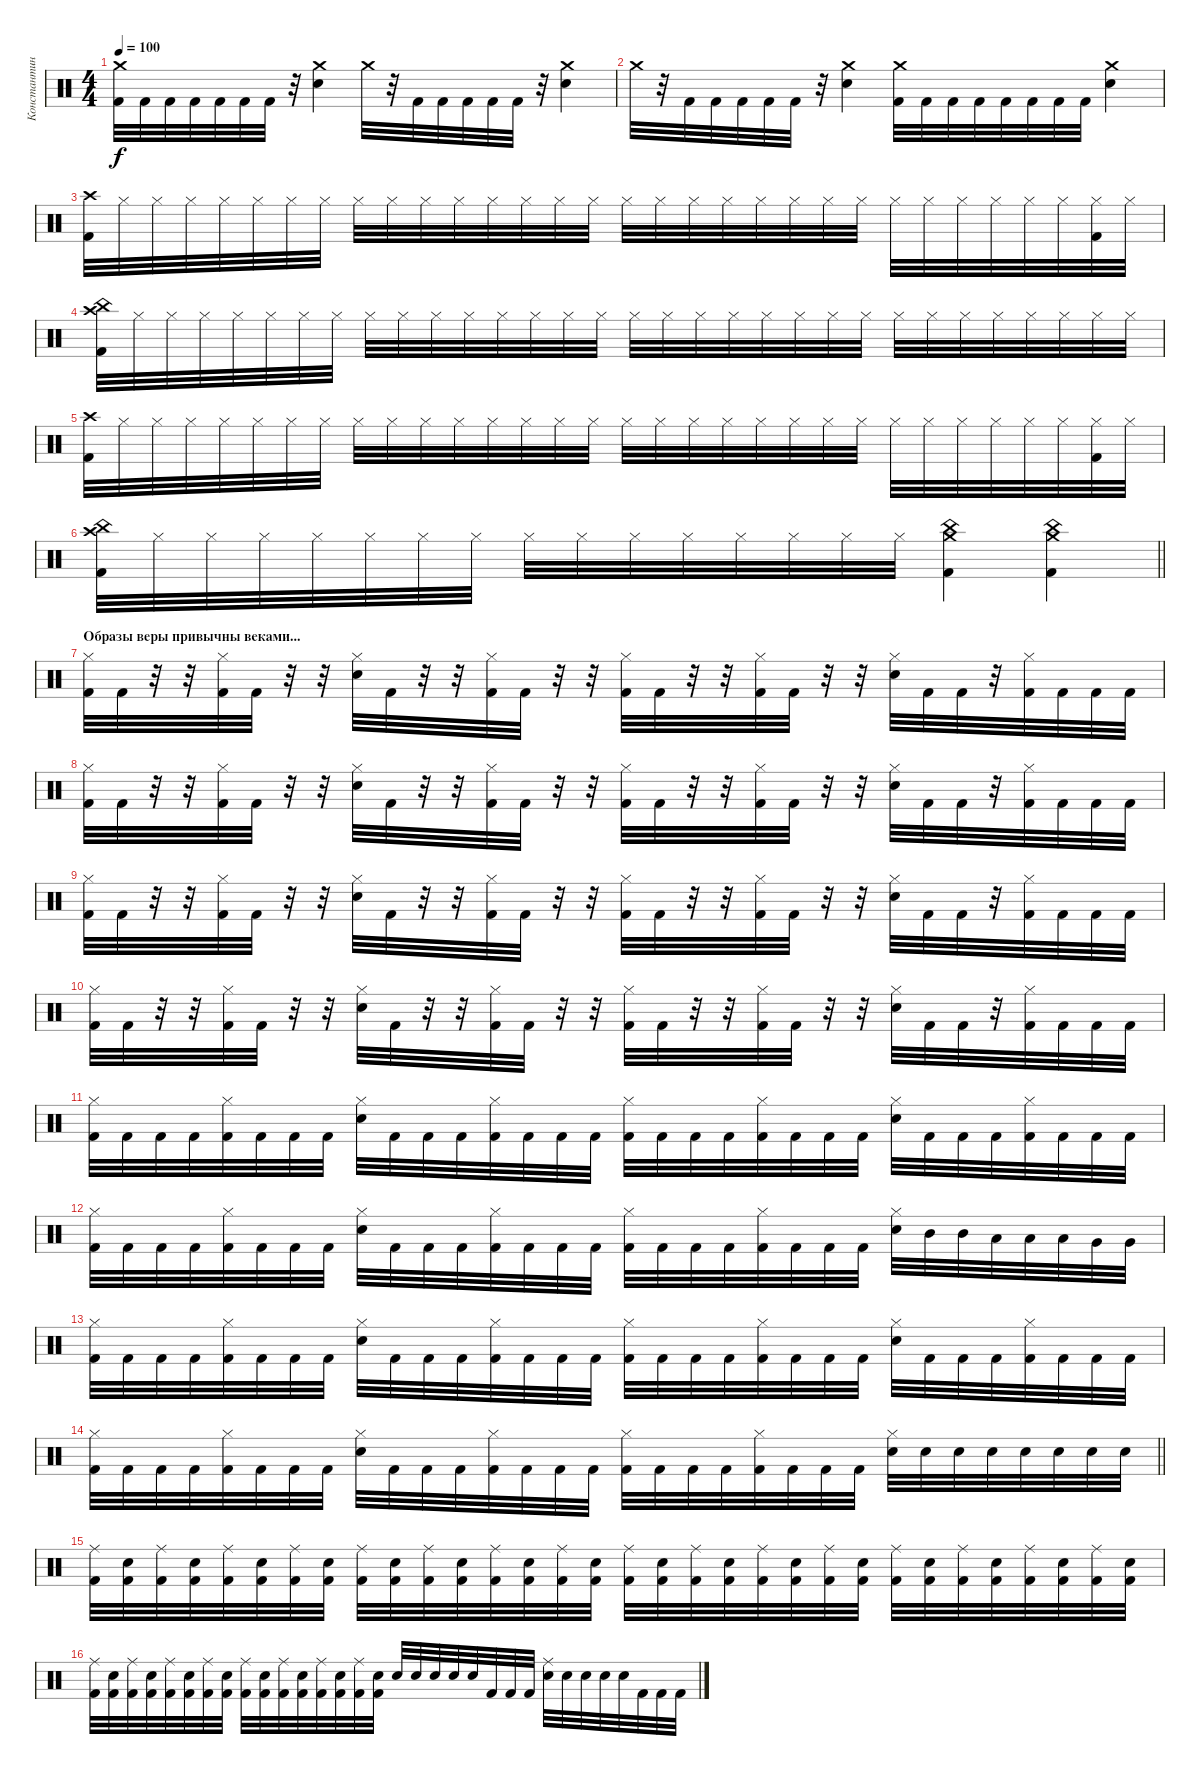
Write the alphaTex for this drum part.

\track ("Константин \"Салян\" Сальников" "Константин") {instrument percussion}
\staff {score}
\articulation defaults
\ts (4 4)
\tempo 100
\clef neutral
\ks c
("Crash medium (hit)" "Kick (hit) 2").32{dy f} "Kick (hit) 2".32 "Kick (hit) 2".32 "Kick (hit) 2".32 "Kick (hit) 2".32 "Kick (hit) 2".32 "Kick (hit) 2".32 r.32 ("Crash medium (hit)" "Electric Snare (hit)").4 "Crash medium (hit)".32 r.32 "Kick (hit) 2".32 "Kick (hit) 2".32 "Kick (hit) 2".32 "Kick (hit) 2".32 "Kick (hit) 2".32 r.32 ("Crash medium (hit)" "Electric Snare (hit)").4 |
"Crash medium (hit)".32 r.32 "Kick (hit) 2".32 "Kick (hit) 2".32 "Kick (hit) 2".32 "Kick (hit) 2".32 "Kick (hit) 2".32 r.32 ("Crash medium (hit)" "Electric Snare (hit)").4 ("Crash medium (hit)" "Kick (hit) 2").32 "Kick (hit) 2".32 "Kick (hit) 2".32 "Kick (hit) 2".32 "Kick (hit) 2".32 "Kick (hit) 2".32 "Kick (hit) 2".32 "Kick (hit) 2".32 ("Crash medium (hit)" "Electric Snare (hit)").4 |
("Crash high (hit)" "Kick (hit) 2").32 "Hi-Hat (closed)".32 "Hi-Hat (closed)".32 "Hi-Hat (closed)".32 "Hi-Hat (closed)".32 "Hi-Hat (closed)".32 "Hi-Hat (closed)".32 "Hi-Hat (closed)".32 "Hi-Hat (closed)".32 "Hi-Hat (closed)".32 "Hi-Hat (closed)".32 "Hi-Hat (closed)".32 "Hi-Hat (closed)".32 "Hi-Hat (closed)".32 "Hi-Hat (closed)".32 "Hi-Hat (closed)".32 "Hi-Hat (closed)".32 "Hi-Hat (closed)".32 "Hi-Hat (closed)".32 "Hi-Hat (closed)".32 "Hi-Hat (closed)".32 "Hi-Hat (closed)".32 "Hi-Hat (closed)".32 "Hi-Hat (closed)".32 "Hi-Hat (closed)".32 "Hi-Hat (closed)".32 "Hi-Hat (closed)".32 "Hi-Hat (closed)".32 "Hi-Hat (closed)".32 "Hi-Hat (closed)".32 ("Hi-Hat (closed)" "Kick (hit) 2").32 "Hi-Hat (closed)".32 |
("Crash high (hit)" "Kick (hit) 2" "China (hit)").32 "Hi-Hat (closed)".32 "Hi-Hat (closed)".32 "Hi-Hat (closed)".32 "Hi-Hat (closed)".32 "Hi-Hat (closed)".32 "Hi-Hat (closed)".32 "Hi-Hat (closed)".32 "Hi-Hat (closed)".32 "Hi-Hat (closed)".32 "Hi-Hat (closed)".32 "Hi-Hat (closed)".32 "Hi-Hat (closed)".32 "Hi-Hat (closed)".32 "Hi-Hat (closed)".32 "Hi-Hat (closed)".32 "Hi-Hat (closed)".32 "Hi-Hat (closed)".32 "Hi-Hat (closed)".32 "Hi-Hat (closed)".32 "Hi-Hat (closed)".32 "Hi-Hat (closed)".32 "Hi-Hat (closed)".32 "Hi-Hat (closed)".32 "Hi-Hat (closed)".32 "Hi-Hat (closed)".32 "Hi-Hat (closed)".32 "Hi-Hat (closed)".32 "Hi-Hat (closed)".32 "Hi-Hat (closed)".32 "Hi-Hat (closed)".32 "Hi-Hat (closed)".32 |
("Crash high (hit)" "Kick (hit) 2").32 "Hi-Hat (closed)".32 "Hi-Hat (closed)".32 "Hi-Hat (closed)".32 "Hi-Hat (closed)".32 "Hi-Hat (closed)".32 "Hi-Hat (closed)".32 "Hi-Hat (closed)".32 "Hi-Hat (closed)".32 "Hi-Hat (closed)".32 "Hi-Hat (closed)".32 "Hi-Hat (closed)".32 "Hi-Hat (closed)".32 "Hi-Hat (closed)".32 "Hi-Hat (closed)".32 "Hi-Hat (closed)".32 "Hi-Hat (closed)".32 "Hi-Hat (closed)".32 "Hi-Hat (closed)".32 "Hi-Hat (closed)".32 "Hi-Hat (closed)".32 "Hi-Hat (closed)".32 "Hi-Hat (closed)".32 "Hi-Hat (closed)".32 "Hi-Hat (closed)".32 "Hi-Hat (closed)".32 "Hi-Hat (closed)".32 "Hi-Hat (closed)".32 "Hi-Hat (closed)".32 "Hi-Hat (closed)".32 ("Hi-Hat (closed)" "Kick (hit) 2").32 "Hi-Hat (closed)".32 |
\barLineRight lightlight
("Crash high (hit)" "Kick (hit) 2" "China (hit)").32 "Hi-Hat (closed)".32 "Hi-Hat (closed)".32 "Hi-Hat (closed)".32 "Hi-Hat (closed)".32 "Hi-Hat (closed)".32 "Hi-Hat (closed)".32 "Hi-Hat (closed)".32 "Hi-Hat (closed)".32 "Hi-Hat (closed)".32 "Hi-Hat (closed)".32 "Hi-Hat (closed)".32 "Hi-Hat (closed)".32 "Hi-Hat (closed)".32 "Hi-Hat (closed)".32 "Hi-Hat (closed)".32 ("China (hit)" "Kick (hit) 2" "Crash medium (hit)").4 ("China (hit)" "Kick (hit) 2" "Crash medium (hit)").4 |
\section ("" "Образы веры привычны веками...")
("Hi-Hat (closed)" "Kick (hit) 2").32 "Kick (hit) 2".32 r.32 r.32 ("Hi-Hat (closed)" "Kick (hit) 2").32 "Kick (hit) 2".32 r.32 r.32 ("Hi-Hat (closed)" "Electric Snare (hit)").32 "Kick (hit) 2".32 r.32 r.32 ("Hi-Hat (closed)" "Kick (hit) 2").32 "Kick (hit) 2".32 r.32 r.32 ("Hi-Hat (closed)" "Kick (hit) 2").32 "Kick (hit) 2".32 r.32 r.32 ("Hi-Hat (closed)" "Kick (hit) 2").32 "Kick (hit) 2".32 r.32 r.32 ("Hi-Hat (closed)" "Electric Snare (hit)").32 "Kick (hit) 2".32 "Kick (hit) 2".32 r.32 ("Hi-Hat (closed)" "Kick (hit) 2").32 "Kick (hit) 2".32 "Kick (hit) 2".32 "Kick (hit) 2".32 |
("Hi-Hat (closed)" "Kick (hit) 2").32 "Kick (hit) 2".32 r.32 r.32 ("Hi-Hat (closed)" "Kick (hit) 2").32 "Kick (hit) 2".32 r.32 r.32 ("Hi-Hat (closed)" "Electric Snare (hit)").32 "Kick (hit) 2".32 r.32 r.32 ("Hi-Hat (closed)" "Kick (hit) 2").32 "Kick (hit) 2".32 r.32 r.32 ("Hi-Hat (closed)" "Kick (hit) 2").32 "Kick (hit) 2".32 r.32 r.32 ("Hi-Hat (closed)" "Kick (hit) 2").32 "Kick (hit) 2".32 r.32 r.32 ("Hi-Hat (closed)" "Electric Snare (hit)").32 "Kick (hit) 2".32 "Kick (hit) 2".32 r.32 ("Hi-Hat (closed)" "Kick (hit) 2").32 "Kick (hit) 2".32 "Kick (hit) 2".32 "Kick (hit) 2".32 |
("Hi-Hat (closed)" "Kick (hit) 2").32 "Kick (hit) 2".32 r.32 r.32 ("Hi-Hat (closed)" "Kick (hit) 2").32 "Kick (hit) 2".32 r.32 r.32 ("Hi-Hat (closed)" "Electric Snare (hit)").32 "Kick (hit) 2".32 r.32 r.32 ("Hi-Hat (closed)" "Kick (hit) 2").32 "Kick (hit) 2".32 r.32 r.32 ("Hi-Hat (closed)" "Kick (hit) 2").32 "Kick (hit) 2".32 r.32 r.32 ("Hi-Hat (closed)" "Kick (hit) 2").32 "Kick (hit) 2".32 r.32 r.32 ("Hi-Hat (closed)" "Electric Snare (hit)").32 "Kick (hit) 2".32 "Kick (hit) 2".32 r.32 ("Hi-Hat (closed)" "Kick (hit) 2").32 "Kick (hit) 2".32 "Kick (hit) 2".32 "Kick (hit) 2".32 |
("Hi-Hat (closed)" "Kick (hit) 2").32 "Kick (hit) 2".32 r.32 r.32 ("Hi-Hat (closed)" "Kick (hit) 2").32 "Kick (hit) 2".32 r.32 r.32 ("Hi-Hat (closed)" "Electric Snare (hit)").32 "Kick (hit) 2".32 r.32 r.32 ("Hi-Hat (closed)" "Kick (hit) 2").32 "Kick (hit) 2".32 r.32 r.32 ("Hi-Hat (closed)" "Kick (hit) 2").32 "Kick (hit) 2".32 r.32 r.32 ("Hi-Hat (closed)" "Kick (hit) 2").32 "Kick (hit) 2".32 r.32 r.32 ("Hi-Hat (closed)" "Electric Snare (hit)").32 "Kick (hit) 2".32 "Kick (hit) 2".32 r.32 ("Hi-Hat (closed)" "Kick (hit) 2").32 "Kick (hit) 2".32 "Kick (hit) 2".32 "Kick (hit) 2".32 |
("Hi-Hat (closed)" "Kick (hit) 2").32 "Kick (hit) 2".32 "Kick (hit) 2".32 "Kick (hit) 2".32 ("Hi-Hat (closed)" "Kick (hit) 2").32 "Kick (hit) 2".32 "Kick (hit) 2".32 "Kick (hit) 2".32 ("Hi-Hat (closed)" "Electric Snare (hit)").32 "Kick (hit) 2".32 "Kick (hit) 2".32 "Kick (hit) 2".32 ("Hi-Hat (closed)" "Kick (hit) 2").32 "Kick (hit) 2".32 "Kick (hit) 2".32 "Kick (hit) 2".32 ("Hi-Hat (closed)" "Kick (hit) 2").32 "Kick (hit) 2".32 "Kick (hit) 2".32 "Kick (hit) 2".32 ("Hi-Hat (closed)" "Kick (hit) 2").32 "Kick (hit) 2".32 "Kick (hit) 2".32 "Kick (hit) 2".32 ("Hi-Hat (closed)" "Electric Snare (hit)").32 "Kick (hit) 2".32 "Kick (hit) 2".32 "Kick (hit) 2".32 ("Hi-Hat (closed)" "Kick (hit) 2").32 "Kick (hit) 2".32 "Kick (hit) 2".32 "Kick (hit) 2".32 |
("Hi-Hat (closed)" "Kick (hit) 2").32 "Kick (hit) 2".32 "Kick (hit) 2".32 "Kick (hit) 2".32 ("Hi-Hat (closed)" "Kick (hit) 2").32 "Kick (hit) 2".32 "Kick (hit) 2".32 "Kick (hit) 2".32 ("Hi-Hat (closed)" "Electric Snare (hit)").32 "Kick (hit) 2".32 "Kick (hit) 2".32 "Kick (hit) 2".32 ("Hi-Hat (closed)" "Kick (hit) 2").32 "Kick (hit) 2".32 "Kick (hit) 2".32 "Kick (hit) 2".32 ("Hi-Hat (closed)" "Kick (hit) 2").32 "Kick (hit) 2".32 "Kick (hit) 2".32 "Kick (hit) 2".32 ("Hi-Hat (closed)" "Kick (hit) 2").32 "Kick (hit) 2".32 "Kick (hit) 2".32 "Kick (hit) 2".32 ("Hi-Hat (closed)" "Electric Snare (hit)").32 "Mid Tom (hit)".32 "Mid Tom (hit)".32 "Low Tom (hit)".32 "Low Tom (hit)".32 "Low Tom (hit)".32 "Very Low Tom (hit)".32 "Very Low Tom (hit)".32 |
("Hi-Hat (closed)" "Kick (hit) 2").32 "Kick (hit) 2".32 "Kick (hit) 2".32 "Kick (hit) 2".32 ("Hi-Hat (closed)" "Kick (hit) 2").32 "Kick (hit) 2".32 "Kick (hit) 2".32 "Kick (hit) 2".32 ("Hi-Hat (closed)" "Electric Snare (hit)").32 "Kick (hit) 2".32 "Kick (hit) 2".32 "Kick (hit) 2".32 ("Hi-Hat (closed)" "Kick (hit) 2").32 "Kick (hit) 2".32 "Kick (hit) 2".32 "Kick (hit) 2".32 ("Hi-Hat (closed)" "Kick (hit) 2").32 "Kick (hit) 2".32 "Kick (hit) 2".32 "Kick (hit) 2".32 ("Hi-Hat (closed)" "Kick (hit) 2").32 "Kick (hit) 2".32 "Kick (hit) 2".32 "Kick (hit) 2".32 ("Hi-Hat (closed)" "Electric Snare (hit)").32 "Kick (hit) 2".32 "Kick (hit) 2".32 "Kick (hit) 2".32 ("Hi-Hat (closed)" "Kick (hit) 2").32 "Kick (hit) 2".32 "Kick (hit) 2".32 "Kick (hit) 2".32 |
\barLineRight lightlight
("Hi-Hat (closed)" "Kick (hit) 2").32 "Kick (hit) 2".32 "Kick (hit) 2".32 "Kick (hit) 2".32 ("Hi-Hat (closed)" "Kick (hit) 2").32 "Kick (hit) 2".32 "Kick (hit) 2".32 "Kick (hit) 2".32 ("Hi-Hat (closed)" "Electric Snare (hit)").32 "Kick (hit) 2".32 "Kick (hit) 2".32 "Kick (hit) 2".32 ("Hi-Hat (closed)" "Kick (hit) 2").32 "Kick (hit) 2".32 "Kick (hit) 2".32 "Kick (hit) 2".32 ("Hi-Hat (closed)" "Kick (hit) 2").32 "Kick (hit) 2".32 "Kick (hit) 2".32 "Kick (hit) 2".32 ("Hi-Hat (closed)" "Kick (hit) 2").32 "Kick (hit) 2".32 "Kick (hit) 2".32 "Kick (hit) 2".32 ("Hi-Hat (closed)" "Electric Snare (hit)").32 "Electric Snare (hit)".32 "Electric Snare (hit)".32 "Electric Snare (hit)".32 "Electric Snare (hit)".32 "Electric Snare (hit)".32 "Electric Snare (hit)".32 "Electric Snare (hit)".32 |
("Ride (middle)" "Kick (hit) 2").32 ("Electric Snare (hit)" "Kick (hit) 2").32 ("Ride (middle)" "Kick (hit) 2").32 ("Electric Snare (hit)" "Kick (hit) 2").32 ("Ride (middle)" "Kick (hit) 2").32 ("Electric Snare (hit)" "Kick (hit) 2").32 ("Ride (middle)" "Kick (hit) 2").32 ("Electric Snare (hit)" "Kick (hit) 2").32 ("Ride (middle)" "Kick (hit) 2").32 ("Electric Snare (hit)" "Kick (hit) 2").32 ("Ride (middle)" "Kick (hit) 2").32 ("Electric Snare (hit)" "Kick (hit) 2").32 ("Ride (middle)" "Kick (hit) 2").32 ("Electric Snare (hit)" "Kick (hit) 2").32 ("Ride (middle)" "Kick (hit) 2").32 ("Electric Snare (hit)" "Kick (hit) 2").32 ("Ride (middle)" "Kick (hit) 2").32 ("Electric Snare (hit)" "Kick (hit) 2").32 ("Ride (middle)" "Kick (hit) 2").32 ("Electric Snare (hit)" "Kick (hit) 2").32 ("Ride (middle)" "Kick (hit) 2").32 ("Electric Snare (hit)" "Kick (hit) 2").32 ("Ride (middle)" "Kick (hit) 2").32 ("Electric Snare (hit)" "Kick (hit) 2").32 ("Ride (middle)" "Kick (hit) 2").32 ("Electric Snare (hit)" "Kick (hit) 2").32 ("Ride (middle)" "Kick (hit) 2").32 ("Electric Snare (hit)" "Kick (hit) 2").32 ("Ride (middle)" "Kick (hit) 2").32 ("Electric Snare (hit)" "Kick (hit) 2").32 ("Ride (middle)" "Kick (hit) 2").32 ("Electric Snare (hit)" "Kick (hit) 2").32 |
("Ride (middle)" "Kick (hit) 2").32 ("Electric Snare (hit)" "Kick (hit) 2").32 ("Ride (middle)" "Kick (hit) 2").32 ("Electric Snare (hit)" "Kick (hit) 2").32 ("Ride (middle)" "Kick (hit) 2").32 ("Electric Snare (hit)" "Kick (hit) 2").32 ("Ride (middle)" "Kick (hit) 2").32 ("Electric Snare (hit)" "Kick (hit) 2").32 ("Ride (middle)" "Kick (hit) 2").32 ("Electric Snare (hit)" "Kick (hit) 2").32 ("Ride (middle)" "Kick (hit) 2").32 ("Electric Snare (hit)" "Kick (hit) 2").32 ("Ride (middle)" "Kick (hit) 2").32 ("Electric Snare (hit)" "Kick (hit) 2").32 ("Ride (middle)" "Kick (hit) 2").32 ("Electric Snare (hit)" "Kick (hit) 2").32 "Electric Snare (hit)".32 "Electric Snare (hit)".32 "Electric Snare (hit)".32 "Electric Snare (hit)".32 "Electric Snare (hit)".32 "Kick (hit) 2".32 "Kick (hit) 2".32 "Kick (hit) 2".32 ("Ride (middle)" "Electric Snare (hit)").32 "Electric Snare (hit)".32 "Electric Snare (hit)".32 "Electric Snare (hit)".32 "Electric Snare (hit)".32 "Kick (hit) 2".32 "Kick (hit) 2".32 "Kick (hit) 2".32
